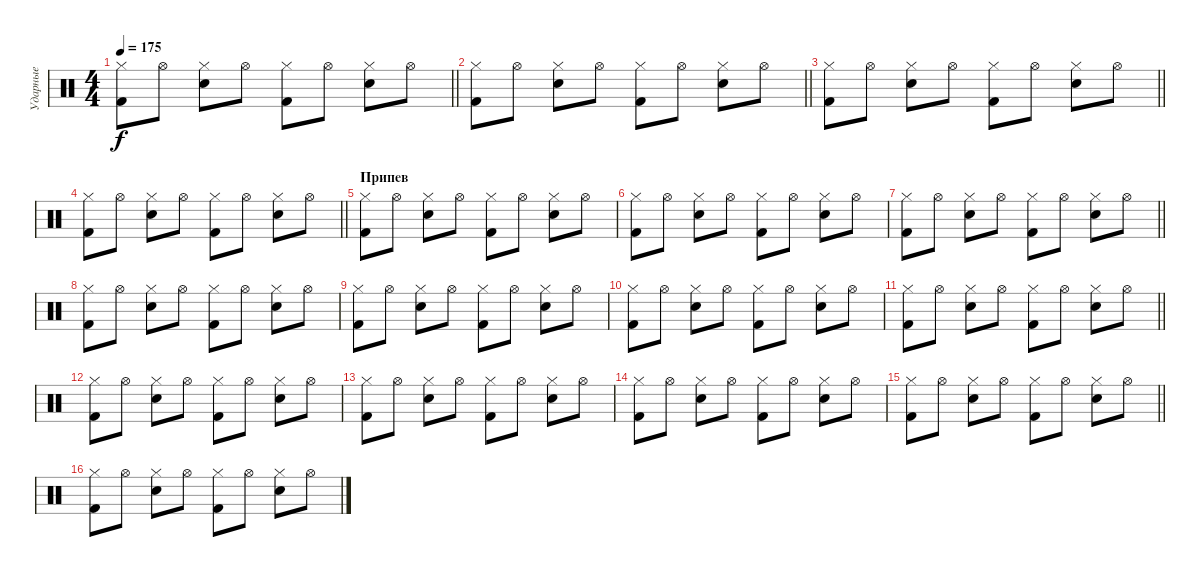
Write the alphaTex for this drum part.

\track ("Ударные" "Ударные") {instrument percussion}
\staff {score}
\articulation defaults
\ts (4 4)
\tempo 175
\clef neutral
\barLineRight lightlight
\ks c
("Hi-Hat (closed)" "Kick (hit) 2").8{dy f} "Hi-Hat (open)".8 ("Hi-Hat (closed)" "Electric Snare (hit)").8 "Hi-Hat (open)".8 ("Hi-Hat (closed)" "Kick (hit) 2").8 "Hi-Hat (open)".8 ("Hi-Hat (closed)" "Electric Snare (hit)").8 "Hi-Hat (open)".8 |
\barLineRight lightlight
("Hi-Hat (closed)" "Kick (hit) 2").8 "Hi-Hat (open)".8 ("Hi-Hat (closed)" "Electric Snare (hit)").8 "Hi-Hat (open)".8 ("Hi-Hat (closed)" "Kick (hit) 2").8 "Hi-Hat (open)".8 ("Hi-Hat (closed)" "Electric Snare (hit)").8 "Hi-Hat (open)".8 |
\barLineRight lightlight
("Hi-Hat (closed)" "Kick (hit) 2").8 "Hi-Hat (open)".8 ("Hi-Hat (closed)" "Electric Snare (hit)").8 "Hi-Hat (open)".8 ("Hi-Hat (closed)" "Kick (hit) 2").8 "Hi-Hat (open)".8 ("Hi-Hat (closed)" "Electric Snare (hit)").8 "Hi-Hat (open)".8 |
\barLineRight lightlight
("Hi-Hat (closed)" "Kick (hit) 2").8 "Hi-Hat (open)".8 ("Hi-Hat (closed)" "Electric Snare (hit)").8 "Hi-Hat (open)".8 ("Hi-Hat (closed)" "Kick (hit) 2").8 "Hi-Hat (open)".8 ("Hi-Hat (closed)" "Electric Snare (hit)").8 "Hi-Hat (open)".8 |
\section ("" "Припев")
("Hi-Hat (closed)" "Kick (hit) 2").8 "Hi-Hat (open)".8 ("Hi-Hat (closed)" "Electric Snare (hit)").8 "Hi-Hat (open)".8 ("Hi-Hat (closed)" "Kick (hit) 2").8 "Hi-Hat (open)".8 ("Hi-Hat (closed)" "Electric Snare (hit)").8 "Hi-Hat (open)".8 |
("Hi-Hat (closed)" "Kick (hit) 2").8 "Hi-Hat (open)".8 ("Hi-Hat (closed)" "Electric Snare (hit)").8 "Hi-Hat (open)".8 ("Hi-Hat (closed)" "Kick (hit) 2").8 "Hi-Hat (open)".8 ("Hi-Hat (closed)" "Electric Snare (hit)").8 "Hi-Hat (open)".8 |
\barLineRight lightlight
("Hi-Hat (closed)" "Kick (hit) 2").8 "Hi-Hat (open)".8 ("Hi-Hat (closed)" "Electric Snare (hit)").8 "Hi-Hat (open)".8 ("Hi-Hat (closed)" "Kick (hit) 2").8 "Hi-Hat (open)".8 ("Hi-Hat (closed)" "Electric Snare (hit)").8 "Hi-Hat (open)".8 |
("Hi-Hat (closed)" "Kick (hit) 2").8 "Hi-Hat (open)".8 ("Hi-Hat (closed)" "Electric Snare (hit)").8 "Hi-Hat (open)".8 ("Hi-Hat (closed)" "Kick (hit) 2").8 "Hi-Hat (open)".8 ("Hi-Hat (closed)" "Electric Snare (hit)").8 "Hi-Hat (open)".8 |
("Hi-Hat (closed)" "Kick (hit) 2").8 "Hi-Hat (open)".8 ("Hi-Hat (closed)" "Electric Snare (hit)").8 "Hi-Hat (open)".8 ("Hi-Hat (closed)" "Kick (hit) 2").8 "Hi-Hat (open)".8 ("Hi-Hat (closed)" "Electric Snare (hit)").8 "Hi-Hat (open)".8 |
("Hi-Hat (closed)" "Kick (hit) 2").8 "Hi-Hat (open)".8 ("Hi-Hat (closed)" "Electric Snare (hit)").8 "Hi-Hat (open)".8 ("Hi-Hat (closed)" "Kick (hit) 2").8 "Hi-Hat (open)".8 ("Hi-Hat (closed)" "Electric Snare (hit)").8 "Hi-Hat (open)".8 |
\barLineRight lightlight
("Hi-Hat (closed)" "Kick (hit) 2").8 "Hi-Hat (open)".8 ("Hi-Hat (closed)" "Electric Snare (hit)").8 "Hi-Hat (open)".8 ("Hi-Hat (closed)" "Kick (hit) 2").8 "Hi-Hat (open)".8 ("Hi-Hat (closed)" "Electric Snare (hit)").8 "Hi-Hat (open)".8 |
("Hi-Hat (closed)" "Kick (hit) 2").8 "Hi-Hat (open)".8 ("Hi-Hat (closed)" "Electric Snare (hit)").8 "Hi-Hat (open)".8 ("Hi-Hat (closed)" "Kick (hit) 2").8 "Hi-Hat (open)".8 ("Hi-Hat (closed)" "Electric Snare (hit)").8 "Hi-Hat (open)".8 |
("Hi-Hat (closed)" "Kick (hit) 2").8 "Hi-Hat (open)".8 ("Hi-Hat (closed)" "Electric Snare (hit)").8 "Hi-Hat (open)".8 ("Hi-Hat (closed)" "Kick (hit) 2").8 "Hi-Hat (open)".8 ("Hi-Hat (closed)" "Electric Snare (hit)").8 "Hi-Hat (open)".8 |
("Hi-Hat (closed)" "Kick (hit) 2").8 "Hi-Hat (open)".8 ("Hi-Hat (closed)" "Electric Snare (hit)").8 "Hi-Hat (open)".8 ("Hi-Hat (closed)" "Kick (hit) 2").8 "Hi-Hat (open)".8 ("Hi-Hat (closed)" "Electric Snare (hit)").8 "Hi-Hat (open)".8 |
\barLineRight lightlight
("Hi-Hat (closed)" "Kick (hit) 2").8 "Hi-Hat (open)".8 ("Hi-Hat (closed)" "Electric Snare (hit)").8 "Hi-Hat (open)".8 ("Hi-Hat (closed)" "Kick (hit) 2").8 "Hi-Hat (open)".8 ("Hi-Hat (closed)" "Electric Snare (hit)").8 "Hi-Hat (open)".8 |
("Hi-Hat (closed)" "Kick (hit) 2").8 "Hi-Hat (open)".8 ("Hi-Hat (closed)" "Electric Snare (hit)").8 "Hi-Hat (open)".8 ("Hi-Hat (closed)" "Kick (hit) 2").8 "Hi-Hat (open)".8 ("Hi-Hat (closed)" "Electric Snare (hit)").8 "Hi-Hat (open)".8
